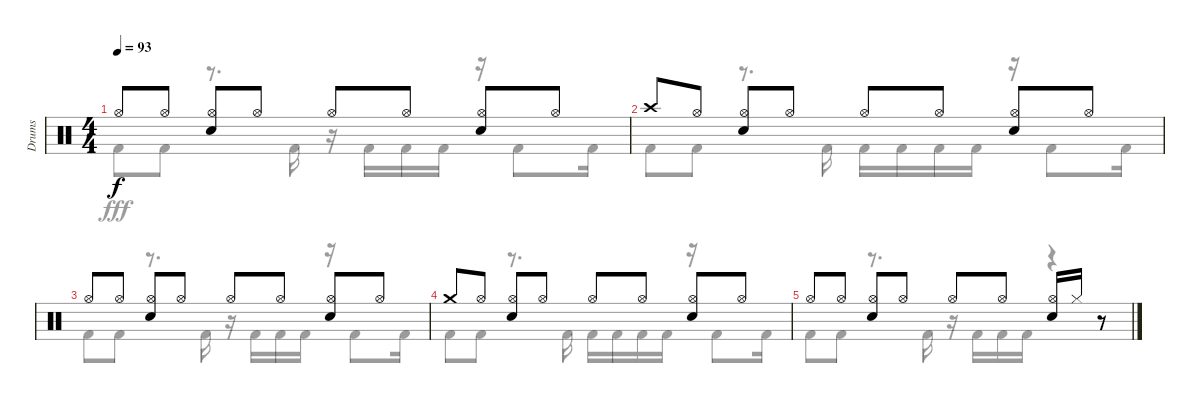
\track ("Drums" "Drums") {instrument percussion}
\staff {score}
\articulation defaults
\voice
\ts (4 4)
\tempo 93
\clef neutral
\ks c "Hi-Hat (open)".8{dy f} "Hi-Hat (open)".8
("Hi-Hat (open)" "Snare (hit) 2").8 "Hi-Hat (open)".8 "Hi-Hat (open)".8 "Hi-Hat (open)".8 ("Hi-Hat (open)" "Snare (hit) 2").8 "Hi-Hat (open)".8 |
"Crash high (hit)".8 "Hi-Hat (open)".8 ("Hi-Hat (open)" "Snare (hit) 2").8 "Hi-Hat (open)".8 "Hi-Hat (open)".8 "Hi-Hat (open)".8 ("Hi-Hat (open)" "Snare (hit) 2").8 "Hi-Hat (open)".8 |
"Hi-Hat (open)".8 "Hi-Hat (open)".8 ("Hi-Hat (open)" "Snare (hit) 2").8 "Hi-Hat (open)".8 "Hi-Hat (open)".8 "Hi-Hat (open)".8 ("Hi-Hat (open)" "Snare (hit) 2").8 "Hi-Hat (open)".8 |
"Crash medium (hit)".8 "Hi-Hat (open)".8 ("Hi-Hat (open)" "Snare (hit) 2").8 "Hi-Hat (open)".8 "Hi-Hat (open)".8 "Hi-Hat (open)".8 ("Hi-Hat (open)" "Snare (hit) 2").8 "Hi-Hat (open)".8 |
"Hi-Hat (open)".8 "Hi-Hat (open)".8 ("Hi-Hat (open)" "Snare (hit) 2").8 "Hi-Hat (open)".8 "Hi-Hat (open)".8 "Hi-Hat (open)".8 ("Hi-Hat (open)" "Snare (hit) 2").16 "Hi-Hat (closed)".16 r.8
\voice
\clef neutral
\ottava regular
\simile none
\ks c "Kick (hit) 2".8{dy fff} "Kick (hit) 2".8
r.8{d} "Kick (hit) 2".16 r.16 "Kick (hit) 2".16 "Kick (hit) 2".16 "Kick (hit) 2".16 r.16 "Kick (hit) 2".8 "Kick (hit) 2".16 |
"Kick (hit) 2".8 "Kick (hit) 2".8 r.8{d} "Kick (hit) 2".16 "Kick (hit) 2".16 "Kick (hit) 2".16 "Kick (hit) 2".16 "Kick (hit) 2".16 r.16 "Kick (hit) 2".8 "Kick (hit) 2".16 |
"Kick (hit) 2".8 "Kick (hit) 2".8 r.8{d} "Kick (hit) 2".16 r.16 "Kick (hit) 2".16 "Kick (hit) 2".16 "Kick (hit) 2".16 r.16 "Kick (hit) 2".8 "Kick (hit) 2".16 |
"Kick (hit) 2".8 "Kick (hit) 2".8 r.8{d} "Kick (hit) 2".16 "Kick (hit) 2".16 "Kick (hit) 2".16 "Kick (hit) 2".16 "Kick (hit) 2".16 r.16 "Kick (hit) 2".8 "Kick (hit) 2".16 |
"Kick (hit) 2".8 "Kick (hit) 2".8 r.8{d} "Kick (hit) 2".16 r.16 "Kick (hit) 2".16 "Kick (hit) 2".16 "Kick (hit) 2".16 r.4
